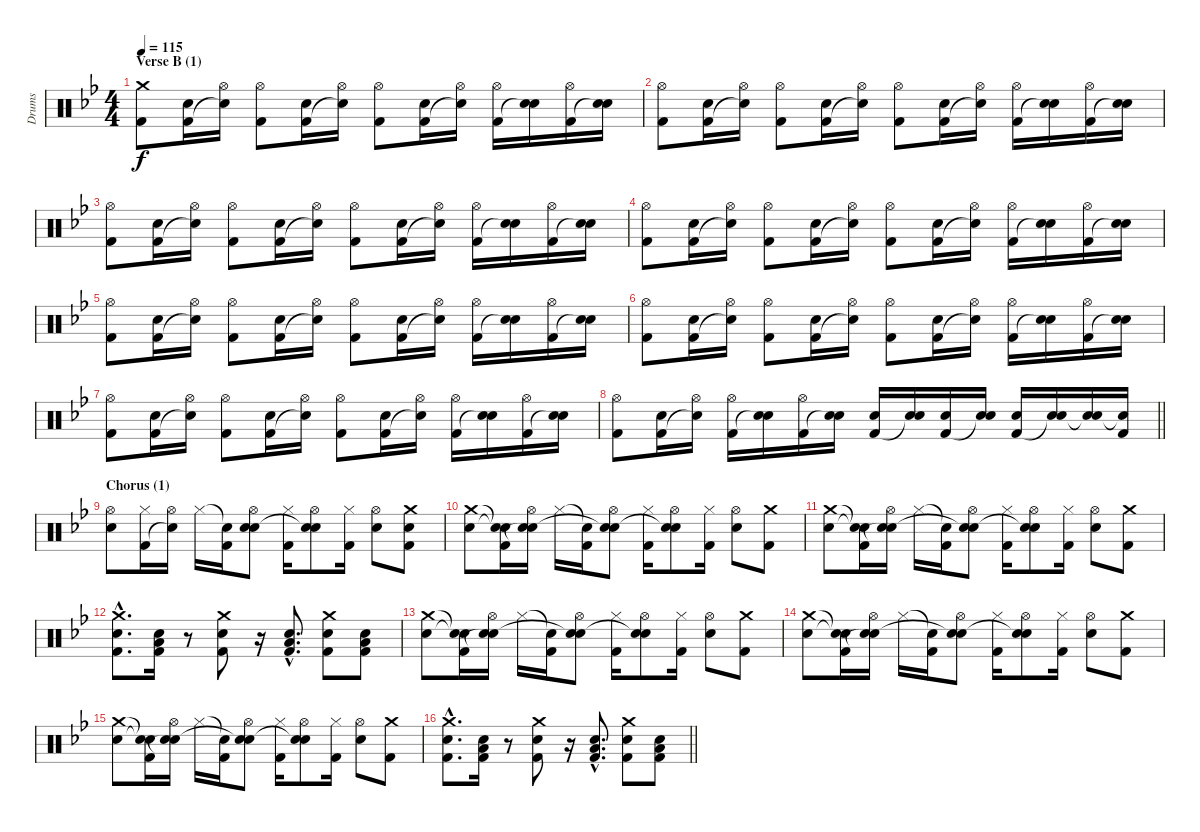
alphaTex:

\track ("Drums" "Drums") {instrument percussion}
\staff {score}
\articulation defaults
\ts (4 4)
\section ("" "Verse B (1)")
\tempo 115
\clef neutral
\ks bb
("Crash medium (hit)" "Kick (hit) 2").8{dy f} ("Electric Snare (hit)" "Kick (hit) 2").16 ("Hi-Hat (open)" "Snare (hit)"{t}).16 ("Hi-Hat (open)" "Kick (hit) 2").8 ("Electric Snare (hit)" "Kick (hit) 2").16 ("Hi-Hat (open)" "Snare (hit)"{t}).16 ("Hi-Hat (open)" "Kick (hit) 2").8 ("Electric Snare (hit)" "Kick (hit) 2").16 ("Hi-Hat (open)" "Snare (hit)"{t}).16 ("Hi-Hat (open)" "Kick (hit) 2").16 ("Electric Snare (hit)" "Snare (hit)"{t}).16 ("Hi-Hat (open)" "Kick (hit) 2").16 ("Electric Snare (hit)" "Snare (hit)"{t}).16 |
("Hi-Hat (open)" "Kick (hit) 2").8 ("Electric Snare (hit)" "Kick (hit) 2").16 ("Hi-Hat (open)" "Snare (hit)"{t}).16 ("Hi-Hat (open)" "Kick (hit) 2").8 ("Electric Snare (hit)" "Kick (hit) 2").16 ("Hi-Hat (open)" "Snare (hit)"{t}).16 ("Hi-Hat (open)" "Kick (hit) 2").8 ("Electric Snare (hit)" "Kick (hit) 2").16 ("Hi-Hat (open)" "Snare (hit)"{t}).16 ("Hi-Hat (open)" "Kick (hit) 2").16 ("Electric Snare (hit)" "Snare (hit)"{t}).16 ("Hi-Hat (open)" "Kick (hit) 2").16 ("Electric Snare (hit)" "Snare (hit)"{t}).16 |
("Hi-Hat (open)" "Kick (hit) 2").8 ("Electric Snare (hit)" "Kick (hit) 2").16 ("Hi-Hat (open)" "Snare (hit)"{t}).16 ("Hi-Hat (open)" "Kick (hit) 2").8 ("Electric Snare (hit)" "Kick (hit) 2").16 ("Hi-Hat (open)" "Snare (hit)"{t}).16 ("Hi-Hat (open)" "Kick (hit) 2").8 ("Electric Snare (hit)" "Kick (hit) 2").16 ("Hi-Hat (open)" "Snare (hit)"{t}).16 ("Hi-Hat (open)" "Kick (hit) 2").16 ("Electric Snare (hit)" "Snare (hit)"{t}).16 ("Hi-Hat (open)" "Kick (hit) 2").16 ("Electric Snare (hit)" "Snare (hit)"{t}).16 |
("Hi-Hat (open)" "Kick (hit) 2").8 ("Electric Snare (hit)" "Kick (hit) 2").16 ("Hi-Hat (open)" "Snare (hit)"{t}).16 ("Hi-Hat (open)" "Kick (hit) 2").8 ("Electric Snare (hit)" "Kick (hit) 2").16 ("Hi-Hat (open)" "Snare (hit)"{t}).16 ("Hi-Hat (open)" "Kick (hit) 2").8 ("Electric Snare (hit)" "Kick (hit) 2").16 ("Hi-Hat (open)" "Snare (hit)"{t}).16 ("Hi-Hat (open)" "Kick (hit) 2").16 ("Electric Snare (hit)" "Snare (hit)"{t}).16 ("Hi-Hat (open)" "Kick (hit) 2").16 ("Electric Snare (hit)" "Snare (hit)"{t}).16 |
("Hi-Hat (open)" "Kick (hit) 2").8 ("Electric Snare (hit)" "Kick (hit) 2").16 ("Hi-Hat (open)" "Snare (hit)"{t}).16 ("Hi-Hat (open)" "Kick (hit) 2").8 ("Electric Snare (hit)" "Kick (hit) 2").16 ("Hi-Hat (open)" "Snare (hit)"{t}).16 ("Hi-Hat (open)" "Kick (hit) 2").8 ("Electric Snare (hit)" "Kick (hit) 2").16 ("Hi-Hat (open)" "Snare (hit)"{t}).16 ("Hi-Hat (open)" "Kick (hit) 2").16 ("Electric Snare (hit)" "Snare (hit)"{t}).16 ("Hi-Hat (open)" "Kick (hit) 2").16 ("Electric Snare (hit)" "Snare (hit)"{t}).16 |
("Hi-Hat (open)" "Kick (hit) 2").8 ("Electric Snare (hit)" "Kick (hit) 2").16 ("Hi-Hat (open)" "Snare (hit)"{t}).16 ("Hi-Hat (open)" "Kick (hit) 2").8 ("Electric Snare (hit)" "Kick (hit) 2").16 ("Hi-Hat (open)" "Snare (hit)"{t}).16 ("Hi-Hat (open)" "Kick (hit) 2").8 ("Electric Snare (hit)" "Kick (hit) 2").16 ("Hi-Hat (open)" "Snare (hit)"{t}).16 ("Hi-Hat (open)" "Kick (hit) 2").16 ("Electric Snare (hit)" "Snare (hit)"{t}).16 ("Hi-Hat (open)" "Kick (hit) 2").16 ("Electric Snare (hit)" "Snare (hit)"{t}).16 |
("Hi-Hat (open)" "Kick (hit) 2").8 ("Electric Snare (hit)" "Kick (hit) 2").16 ("Hi-Hat (open)" "Snare (hit)"{t}).16 ("Hi-Hat (open)" "Kick (hit) 2").8 ("Electric Snare (hit)" "Kick (hit) 2").16 ("Hi-Hat (open)" "Snare (hit)"{t}).16 ("Hi-Hat (open)" "Kick (hit) 2").8 ("Electric Snare (hit)" "Kick (hit) 2").16 ("Hi-Hat (open)" "Snare (hit)"{t}).16 ("Hi-Hat (open)" "Kick (hit) 2").16 ("Electric Snare (hit)" "Snare (hit)"{t}).16 ("Hi-Hat (open)" "Kick (hit) 2").16 ("Electric Snare (hit)" "Snare (hit)"{t}).16 |
\barLineRight lightlight
("Hi-Hat (open)" "Kick (hit) 2").8 ("Electric Snare (hit)" "Kick (hit) 2").16 ("Hi-Hat (open)" "Snare (hit)"{t}).16 ("Hi-Hat (open)" "Kick (hit) 2").16 ("Electric Snare (hit)" "Snare (hit)"{t}).16 ("Hi-Hat (open)" "Kick (hit) 2").16 ("Electric Snare (hit)" "Snare (hit)"{t}).16 ("Electric Snare (hit)" "Kick (hit) 2").16 ("Electric Snare (hit)" "Snare (hit)"{t}).16 ("Electric Snare (hit)" "Kick (hit) 2").16 ("Electric Snare (hit)" "Snare (hit)"{t}).16 ("Electric Snare (hit)" "Kick (hit) 2").16 ("Electric Snare (hit)" "Snare (hit)"{t}).16 ("Electric Snare (hit)" "Snare (hit)"{t}).16 ("Snare (hit)"{t} "Kick (hit) 2").16 |
\section ("" "Chorus (1)")
("Hi-Hat (open)" "Electric Snare (hit)").8 ("Hi-Hat (closed)" "Kick (hit) 2").16 ("Hi-Hat (open)" "Snare (hit)"{t}).16 "Hi-Hat (closed)".16 ("Snare (hit)"{t} "Kick (hit) 2").16 ("Hi-Hat (open)" "Electric Snare (hit)" "Snare (hit)").8 ("Hi-Hat (closed)" "Kick (hit) 2").16 ("Hi-Hat (open)" "Electric Snare (hit)" "Snare (hit)"{t}).8 ("Hi-Hat (closed)" "Kick (hit) 2").16 ("Hi-Hat (open)" "Electric Snare (hit)").8 ("Crash medium (hit)" "Electric Snare (hit)" "Kick (hit) 2").8 |
("Crash medium (hit)" "Electric Snare (hit)").8 ("Snare (hit)"{t} "Snare (hit)"{t} "Kick (hit) 2").16 ("Hi-Hat (open)" "Electric Snare (hit)" "Snare (hit)"{t}).16 "Hi-Hat (closed)".16 ("Snare (hit)"{t} "Kick (hit) 2").16 ("Hi-Hat (open)" "Electric Snare (hit)" "Snare (hit)"{t}).8 ("Hi-Hat (closed)" "Kick (hit) 2").16 ("Hi-Hat (open)" "Electric Snare (hit)" "Snare (hit)"{t}).8 ("Hi-Hat (closed)" "Kick (hit) 2").16 ("Hi-Hat (open)" "Electric Snare (hit)").8 ("Crash medium (hit)" "Kick (hit) 2").8 |
("Crash medium (hit)" "Electric Snare (hit)").8 ("Snare (hit)"{t} "Snare (hit)"{t} "Kick (hit) 2").16 ("Hi-Hat (open)" "Electric Snare (hit)" "Snare (hit)"{t}).16 "Hi-Hat (closed)".16 ("Snare (hit)"{t} "Kick (hit) 2").16 ("Hi-Hat (open)" "Electric Snare (hit)" "Snare (hit)"{t}).8 ("Hi-Hat (closed)" "Kick (hit) 2").16 ("Hi-Hat (open)" "Electric Snare (hit)" "Snare (hit)"{t}).8 ("Hi-Hat (closed)" "Kick (hit) 2").16 ("Hi-Hat (open)" "Electric Snare (hit)").8 ("Crash medium (hit)" "Kick (hit) 2").8 |
("Crash medium (hit)"{hac} "Electric Snare (hit)"{hac} "Kick (hit) 2"{hac}).8{d} ("Electric Snare (hit)" "Low Floor Tom (hit)" "Kick (hit) 2").16 r.8 ("Crash medium (hit)" "Electric Snare (hit)" "Kick (hit) 2").8 r.16 ("Electric Snare (hit)"{hac} "Low Floor Tom (hit)"{hac} "Kick (hit) 2"{hac}).8{d} ("Crash medium (hit)" "Electric Snare (hit)" "Kick (hit) 2").8 ("Electric Snare (hit)" "Low Floor Tom (hit)" "Kick (hit) 2").8 |
("Crash medium (hit)" "Electric Snare (hit)").8 ("Snare (hit)"{t} "Snare (hit)"{t} "Kick (hit) 2").16 ("Hi-Hat (open)" "Electric Snare (hit)" "Snare (hit)"{t}).16 "Hi-Hat (closed)".16 ("Snare (hit)"{t} "Kick (hit) 2").16 ("Hi-Hat (open)" "Electric Snare (hit)" "Snare (hit)"{t}).8 ("Hi-Hat (closed)" "Kick (hit) 2").16 ("Hi-Hat (open)" "Electric Snare (hit)" "Snare (hit)"{t}).8 ("Hi-Hat (closed)" "Kick (hit) 2").16 ("Hi-Hat (open)" "Electric Snare (hit)").8 ("Crash medium (hit)" "Kick (hit) 2").8 |
("Crash medium (hit)" "Electric Snare (hit)").8 ("Snare (hit)"{t} "Snare (hit)"{t} "Kick (hit) 2").16 ("Hi-Hat (open)" "Electric Snare (hit)" "Snare (hit)"{t}).16 "Hi-Hat (closed)".16 ("Snare (hit)"{t} "Kick (hit) 2").16 ("Hi-Hat (open)" "Electric Snare (hit)" "Snare (hit)"{t}).8 ("Hi-Hat (closed)" "Kick (hit) 2").16 ("Hi-Hat (open)" "Electric Snare (hit)" "Snare (hit)"{t}).8 ("Hi-Hat (closed)" "Kick (hit) 2").16 ("Hi-Hat (open)" "Electric Snare (hit)").8 ("Crash medium (hit)" "Kick (hit) 2").8 |
("Crash medium (hit)" "Electric Snare (hit)").8 ("Snare (hit)"{t} "Snare (hit)"{t} "Kick (hit) 2").16 ("Hi-Hat (open)" "Electric Snare (hit)" "Snare (hit)"{t}).16 "Hi-Hat (closed)".16 ("Snare (hit)"{t} "Kick (hit) 2").16 ("Hi-Hat (open)" "Electric Snare (hit)" "Snare (hit)"{t}).8 ("Hi-Hat (closed)" "Kick (hit) 2").16 ("Hi-Hat (open)" "Electric Snare (hit)" "Snare (hit)"{t}).8 ("Hi-Hat (closed)" "Kick (hit) 2").16 ("Hi-Hat (open)" "Electric Snare (hit)").8 ("Crash medium (hit)" "Kick (hit) 2").8 |
\barLineRight lightlight
("Crash medium (hit)"{hac} "Electric Snare (hit)"{hac} "Kick (hit) 2"{hac}).8{d} ("Electric Snare (hit)" "Low Floor Tom (hit)" "Kick (hit) 2").16 r.8 ("Crash medium (hit)" "Electric Snare (hit)" "Kick (hit) 2").8 r.16 ("Electric Snare (hit)"{hac} "Low Floor Tom (hit)"{hac} "Kick (hit) 2"{hac}).8{d} ("Crash medium (hit)" "Electric Snare (hit)" "Kick (hit) 2").8 ("Electric Snare (hit)" "Low Floor Tom (hit)" "Kick (hit) 2").8
